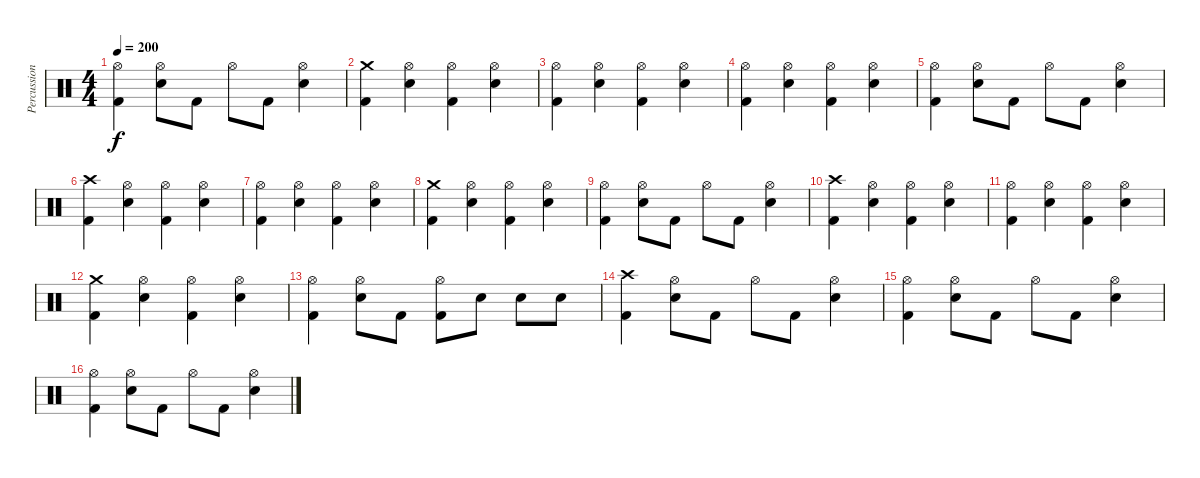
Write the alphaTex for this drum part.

\track ("Percussioni" "Percussion") {instrument percussion}
\staff {score}
\articulation defaults
\ts (4 4)
\tempo 200
\clef neutral
\ks c
("Hi-Hat (open)" "Kick (hit) 2").4{dy f} ("Hi-Hat (open)" "Electric Snare (hit)").8 "Kick (hit) 2".8 "Hi-Hat (open)".8 "Kick (hit) 2".8 ("Hi-Hat (open)" "Electric Snare (hit)").4 |
("Crash medium (hit)" "Kick (hit) 2").4 ("Hi-Hat (open)" "Electric Snare (hit)").4 ("Hi-Hat (open)" "Kick (hit) 2").4 ("Hi-Hat (open)" "Electric Snare (hit)").4 |
("Hi-Hat (open)" "Kick (hit) 2").4 ("Hi-Hat (open)" "Electric Snare (hit)").4 ("Hi-Hat (open)" "Kick (hit) 2").4 ("Hi-Hat (open)" "Electric Snare (hit)").4 |
("Hi-Hat (open)" "Kick (hit) 2").4 ("Hi-Hat (open)" "Electric Snare (hit)").4 ("Hi-Hat (open)" "Kick (hit) 2").4 ("Hi-Hat (open)" "Electric Snare (hit)").4 |
("Hi-Hat (open)" "Kick (hit) 2").4 ("Hi-Hat (open)" "Electric Snare (hit)").8 "Kick (hit) 2".8 "Hi-Hat (open)".8 "Kick (hit) 2".8 ("Hi-Hat (open)" "Electric Snare (hit)").4 |
("Crash high (hit)" "Kick (hit) 2").4 ("Hi-Hat (open)" "Electric Snare (hit)").4 ("Hi-Hat (open)" "Kick (hit) 2").4 ("Hi-Hat (open)" "Electric Snare (hit)").4 |
("Hi-Hat (open)" "Kick (hit) 2").4 ("Hi-Hat (open)" "Electric Snare (hit)").4 ("Hi-Hat (open)" "Kick (hit) 2").4 ("Hi-Hat (open)" "Electric Snare (hit)").4 |
("Crash medium (hit)" "Kick (hit) 2").4 ("Hi-Hat (open)" "Electric Snare (hit)").4 ("Hi-Hat (open)" "Kick (hit) 2").4 ("Hi-Hat (open)" "Electric Snare (hit)").4 |
("Hi-Hat (open)" "Kick (hit) 2").4 ("Hi-Hat (open)" "Electric Snare (hit)").8 "Kick (hit) 2".8 "Hi-Hat (open)".8 "Kick (hit) 2".8 ("Hi-Hat (open)" "Electric Snare (hit)").4 |
("Crash high (hit)" "Kick (hit) 2").4 ("Hi-Hat (open)" "Electric Snare (hit)").4 ("Hi-Hat (open)" "Kick (hit) 2").4 ("Hi-Hat (open)" "Electric Snare (hit)").4 |
("Hi-Hat (open)" "Kick (hit) 2").4 ("Hi-Hat (open)" "Electric Snare (hit)").4 ("Hi-Hat (open)" "Kick (hit) 2").4 ("Hi-Hat (open)" "Electric Snare (hit)").4 |
("Crash medium (hit)" "Kick (hit) 2").4 ("Hi-Hat (open)" "Electric Snare (hit)").4 ("Hi-Hat (open)" "Kick (hit) 2").4 ("Hi-Hat (open)" "Electric Snare (hit)").4 |
("Hi-Hat (open)" "Kick (hit) 2").4 ("Hi-Hat (open)" "Electric Snare (hit)").8 "Kick (hit) 2".8 ("Hi-Hat (open)" "Kick (hit) 2").8 "Electric Snare (hit)".8 "Electric Snare (hit)".8 "Electric Snare (hit)".8 |
("Crash high (hit)" "Kick (hit) 2").4 ("Hi-Hat (open)" "Electric Snare (hit)").8 "Kick (hit) 2".8 "Hi-Hat (open)".8 "Kick (hit) 2".8 ("Hi-Hat (open)" "Electric Snare (hit)").4 |
("Hi-Hat (open)" "Kick (hit) 2").4 ("Hi-Hat (open)" "Electric Snare (hit)").8 "Kick (hit) 2".8 "Hi-Hat (open)".8 "Kick (hit) 2".8 ("Hi-Hat (open)" "Electric Snare (hit)").4 |
("Hi-Hat (open)" "Kick (hit) 2").4 ("Hi-Hat (open)" "Electric Snare (hit)").8 "Kick (hit) 2".8 "Hi-Hat (open)".8 "Kick (hit) 2".8 ("Hi-Hat (open)" "Electric Snare (hit)").4
